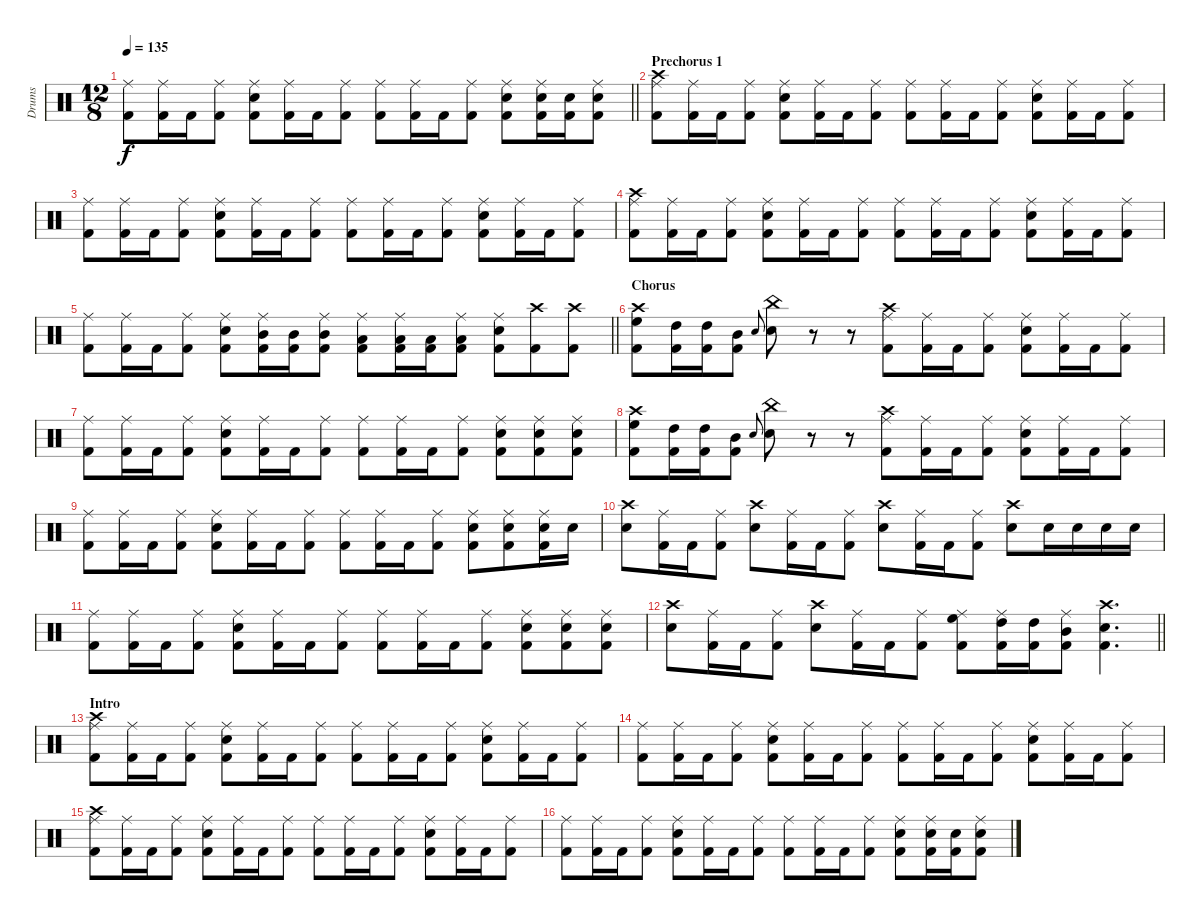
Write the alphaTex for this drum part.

\track ("Drums" "Drums") {instrument percussion}
\staff {score}
\articulation defaults
\ts (12 8)
\tempo 135
\clef neutral
\barLineRight lightlight
\ks c
("Ride (middle)" "Kick (hit) 2").8{dy f} ("Ride (middle)" "Kick (hit) 2").16 "Kick (hit) 2".16 ("Ride (middle)" "Kick (hit) 2").8 ("Ride (middle)" "Snare (hit) 2" "Kick (hit) 2").8 ("Ride (middle)" "Kick (hit) 2").16 "Kick (hit) 2".16 ("Ride (middle)" "Kick (hit) 2").8 ("Ride (middle)" "Kick (hit) 2").8 ("Ride (middle)" "Kick (hit) 2").16 "Kick (hit) 2".16 ("Ride (middle)" "Kick (hit) 2").8 ("Ride (middle)" "Snare (hit) 2" "Kick (hit) 2").8 ("Ride (middle)" "Snare (hit) 2" "Kick (hit) 2").16 ("Snare (hit) 2" "Kick (hit) 2").16 ("Ride (middle)" "Snare (hit) 2" "Kick (hit) 2").8 |
\section ("" "Prechorus 1")
("Crash high (hit)" "Ride (middle)" "Kick (hit) 2").8 ("Ride (middle)" "Kick (hit) 2").16 "Kick (hit) 2".16 ("Ride (middle)" "Kick (hit) 2").8 ("Ride (middle)" "Snare (hit) 2" "Kick (hit) 2").8 ("Ride (middle)" "Kick (hit) 2").16 "Kick (hit) 2".16 ("Ride (middle)" "Kick (hit) 2").8 ("Ride (middle)" "Kick (hit) 2").8 ("Ride (middle)" "Kick (hit) 2").16 "Kick (hit) 2".16 ("Ride (middle)" "Kick (hit) 2").8 ("Ride (middle)" "Snare (hit) 2" "Kick (hit) 2").8 ("Ride (middle)" "Kick (hit) 2").16 "Kick (hit) 2".16 ("Ride (middle)" "Kick (hit) 2").8 |
("Ride (middle)" "Kick (hit) 2").8 ("Ride (middle)" "Kick (hit) 2").16 "Kick (hit) 2".16 ("Ride (middle)" "Kick (hit) 2").8 ("Ride (middle)" "Snare (hit) 2" "Kick (hit) 2").8 ("Ride (middle)" "Kick (hit) 2").16 "Kick (hit) 2".16 ("Ride (middle)" "Kick (hit) 2").8 ("Ride (middle)" "Kick (hit) 2").8 ("Ride (middle)" "Kick (hit) 2").16 "Kick (hit) 2".16 ("Ride (middle)" "Kick (hit) 2").8 ("Ride (middle)" "Snare (hit) 2" "Kick (hit) 2").8 ("Ride (middle)" "Kick (hit) 2").16 "Kick (hit) 2".16 ("Ride (middle)" "Kick (hit) 2").8 |
("Crash high (hit)" "Ride (middle)" "Kick (hit) 2").8 ("Ride (middle)" "Kick (hit) 2").16 "Kick (hit) 2".16 ("Ride (middle)" "Kick (hit) 2").8 ("Ride (middle)" "Snare (hit) 2" "Kick (hit) 2").8 ("Ride (middle)" "Kick (hit) 2").16 "Kick (hit) 2".16 ("Ride (middle)" "Kick (hit) 2").8 ("Ride (middle)" "Kick (hit) 2").8 ("Ride (middle)" "Kick (hit) 2").16 "Kick (hit) 2".16 ("Ride (middle)" "Kick (hit) 2").8 ("Ride (middle)" "Snare (hit) 2" "Kick (hit) 2").8 ("Ride (middle)" "Kick (hit) 2").16 "Kick (hit) 2".16 ("Ride (middle)" "Kick (hit) 2").8 |
\barLineRight lightlight
("Ride (middle)" "Kick (hit) 2").8 ("Ride (middle)" "Kick (hit) 2").16 "Kick (hit) 2".16 ("Ride (middle)" "Kick (hit) 2").8 ("Ride (middle)" "Snare (hit) 2" "Kick (hit) 2").8 ("Ride (middle)" "Mid Tom (hit)" "Kick (hit) 2").16 ("Mid Tom (hit)" "Kick (hit) 2").16 ("Ride (middle)" "Mid Tom (hit)" "Kick (hit) 2").8 ("Ride (middle)" "Low Tom (hit)" "Kick (hit) 2").8 ("Ride (middle)" "Low Tom (hit)" "Kick (hit) 2").16 ("Low Tom (hit)" "Kick (hit) 2").16 ("Ride (middle)" "Low Tom (hit)" "Kick (hit) 2").8 ("Ride (middle)" "Snare (hit) 2" "Kick (hit) 2").8 ("Crash high (hit)" "Kick (hit) 2").8 ("Crash high (hit)" "Kick (hit) 2").8 |
\section ("" "Chorus")
("Crash high (hit)" "High Floor Tom (hit)" "Kick (hit) 2").8 ("High Tom (hit)" "Kick (hit) 2").16 ("High Tom (hit)" "Kick (hit) 2").16 ("Mid Tom (hit)" "Kick (hit) 2").8 "Snare (hit) 2".8{gr onbeat} ("China (hit)" "Snare (hit) 2").8 r.8 r.8 ("Crash high (hit)" "Ride (middle)" "Kick (hit) 2").8 ("Ride (middle)" "Kick (hit) 2").16 "Kick (hit) 2".16 ("Ride (middle)" "Kick (hit) 2").8 ("Ride (middle)" "Snare (hit) 2" "Kick (hit) 2").8 ("Ride (middle)" "Kick (hit) 2").16 "Kick (hit) 2".16 ("Ride (middle)" "Kick (hit) 2").8 |
("Ride (middle)" "Kick (hit) 2").8 ("Ride (middle)" "Kick (hit) 2").16 "Kick (hit) 2".16 ("Ride (middle)" "Kick (hit) 2").8 ("Ride (middle)" "Snare (hit) 2" "Kick (hit) 2").8 ("Ride (middle)" "Kick (hit) 2").16 "Kick (hit) 2".16 ("Ride (middle)" "Kick (hit) 2").8 ("Ride (middle)" "Kick (hit) 2").8 ("Ride (middle)" "Kick (hit) 2").16 "Kick (hit) 2".16 ("Ride (middle)" "Kick (hit) 2").8 ("Ride (middle)" "Snare (hit) 2" "Kick (hit) 2").8 ("Ride (middle)" "Snare (hit) 2" "Kick (hit) 2").8 ("Ride (middle)" "Snare (hit) 2" "Kick (hit) 2").8 |
("Crash high (hit)" "High Floor Tom (hit)" "Kick (hit) 2").8 ("High Tom (hit)" "Kick (hit) 2").16 ("High Tom (hit)" "Kick (hit) 2").16 ("Mid Tom (hit)" "Kick (hit) 2").8 "Snare (hit) 2".8{gr onbeat} ("China (hit)" "Snare (hit) 2").8 r.8 r.8 ("Crash high (hit)" "Ride (middle)" "Kick (hit) 2").8 ("Ride (middle)" "Kick (hit) 2").16 "Kick (hit) 2".16 ("Ride (middle)" "Kick (hit) 2").8 ("Ride (middle)" "Snare (hit) 2" "Kick (hit) 2").8 ("Ride (middle)" "Kick (hit) 2").16 "Kick (hit) 2".16 ("Ride (middle)" "Kick (hit) 2").8 |
("Ride (middle)" "Kick (hit) 2").8 ("Ride (middle)" "Kick (hit) 2").16 "Kick (hit) 2".16 ("Ride (middle)" "Kick (hit) 2").8 ("Ride (middle)" "Snare (hit) 2" "Kick (hit) 2").8 ("Ride (middle)" "Kick (hit) 2").16 "Kick (hit) 2".16 ("Ride (middle)" "Kick (hit) 2").8 ("Ride (middle)" "Kick (hit) 2").8 ("Ride (middle)" "Kick (hit) 2").16 "Kick (hit) 2".16 ("Ride (middle)" "Kick (hit) 2").8 ("Ride (middle)" "Snare (hit) 2" "Kick (hit) 2").8 ("Ride (middle)" "Snare (hit) 2" "Kick (hit) 2").8 ("Ride (middle)" "Snare (hit) 2" "Kick (hit) 2").16 "Snare (hit) 2".16 |
("Crash high (hit)" "Snare (hit) 2").8 ("Ride (middle)" "Kick (hit) 2").16 "Kick (hit) 2".16 ("Ride (middle)" "Kick (hit) 2").8 ("Crash high (hit)" "Snare (hit) 2").8 ("Ride (middle)" "Kick (hit) 2").16 "Kick (hit) 2".16 ("Ride (middle)" "Kick (hit) 2").8 ("Crash high (hit)" "Snare (hit) 2").8 ("Ride (middle)" "Kick (hit) 2").16 "Kick (hit) 2".16 ("Ride (middle)" "Kick (hit) 2").8 ("Crash high (hit)" "Snare (hit) 2").8 "Snare (hit) 2".16 "Snare (hit) 2".16 "Snare (hit) 2".16 "Snare (hit) 2".16 |
("Ride (middle)" "Kick (hit) 2").8 ("Ride (middle)" "Kick (hit) 2").16 "Kick (hit) 2".16 ("Ride (middle)" "Kick (hit) 2").8 ("Ride (middle)" "Snare (hit) 2" "Kick (hit) 2").8 ("Ride (middle)" "Kick (hit) 2").16 "Kick (hit) 2".16 ("Ride (middle)" "Kick (hit) 2").8 ("Ride (middle)" "Kick (hit) 2").8 ("Ride (middle)" "Kick (hit) 2").16 "Kick (hit) 2".16 ("Ride (middle)" "Kick (hit) 2").8 ("Ride (middle)" "Snare (hit) 2" "Kick (hit) 2").8 ("Ride (middle)" "Snare (hit) 2" "Kick (hit) 2").8 ("Ride (middle)" "Snare (hit) 2" "Kick (hit) 2").8 |
\barLineRight lightlight
("Crash high (hit)" "Snare (hit) 2").8 ("Ride (middle)" "Kick (hit) 2").16 "Kick (hit) 2".16 ("Ride (middle)" "Kick (hit) 2").8 ("Crash high (hit)" "Snare (hit) 2").8 ("Ride (middle)" "Kick (hit) 2").16 "Kick (hit) 2".16 ("Ride (middle)" "Kick (hit) 2").8 ("Ride (middle)" "High Floor Tom (hit)" "Kick (hit) 2").8 ("Ride (middle)" "High Tom (hit)" "Kick (hit) 2").16 ("High Tom (hit)" "Kick (hit) 2").16 ("Ride (middle)" "Mid Tom (hit)" "Kick (hit) 2").8 ("Crash high (hit)" "Snare (hit) 2" "Kick (hit) 2").4{d} |
\section ("" "Intro")
("Crash high (hit)" "Ride (middle)" "Kick (hit) 2").8 ("Ride (middle)" "Kick (hit) 2").16 "Kick (hit) 2".16 ("Ride (middle)" "Kick (hit) 2").8 ("Ride (middle)" "Snare (hit) 2" "Kick (hit) 2").8 ("Ride (middle)" "Kick (hit) 2").16 "Kick (hit) 2".16 ("Ride (middle)" "Kick (hit) 2").8 ("Ride (middle)" "Kick (hit) 2").8 ("Ride (middle)" "Kick (hit) 2").16 "Kick (hit) 2".16 ("Ride (middle)" "Kick (hit) 2").8 ("Ride (middle)" "Snare (hit) 2" "Kick (hit) 2").8 ("Ride (middle)" "Kick (hit) 2").16 "Kick (hit) 2".16 ("Ride (middle)" "Kick (hit) 2").8 |
("Ride (middle)" "Kick (hit) 2").8 ("Ride (middle)" "Kick (hit) 2").16 "Kick (hit) 2".16 ("Ride (middle)" "Kick (hit) 2").8 ("Ride (middle)" "Snare (hit) 2" "Kick (hit) 2").8 ("Ride (middle)" "Kick (hit) 2").16 "Kick (hit) 2".16 ("Ride (middle)" "Kick (hit) 2").8 ("Ride (middle)" "Kick (hit) 2").8 ("Ride (middle)" "Kick (hit) 2").16 "Kick (hit) 2".16 ("Ride (middle)" "Kick (hit) 2").8 ("Ride (middle)" "Snare (hit) 2" "Kick (hit) 2").8 ("Ride (middle)" "Kick (hit) 2").16 "Kick (hit) 2".16 ("Ride (middle)" "Kick (hit) 2").8 |
("Crash high (hit)" "Ride (middle)" "Kick (hit) 2").8 ("Ride (middle)" "Kick (hit) 2").16 "Kick (hit) 2".16 ("Ride (middle)" "Kick (hit) 2").8 ("Ride (middle)" "Snare (hit) 2" "Kick (hit) 2").8 ("Ride (middle)" "Kick (hit) 2").16 "Kick (hit) 2".16 ("Ride (middle)" "Kick (hit) 2").8 ("Ride (middle)" "Kick (hit) 2").8 ("Ride (middle)" "Kick (hit) 2").16 "Kick (hit) 2".16 ("Ride (middle)" "Kick (hit) 2").8 ("Ride (middle)" "Snare (hit) 2" "Kick (hit) 2").8 ("Ride (middle)" "Kick (hit) 2").16 "Kick (hit) 2".16 ("Ride (middle)" "Kick (hit) 2").8 |
("Ride (middle)" "Kick (hit) 2").8 ("Ride (middle)" "Kick (hit) 2").16 "Kick (hit) 2".16 ("Ride (middle)" "Kick (hit) 2").8 ("Ride (middle)" "Snare (hit) 2" "Kick (hit) 2").8 ("Ride (middle)" "Kick (hit) 2").16 "Kick (hit) 2".16 ("Ride (middle)" "Kick (hit) 2").8 ("Ride (middle)" "Kick (hit) 2").8 ("Ride (middle)" "Kick (hit) 2").16 "Kick (hit) 2".16 ("Ride (middle)" "Kick (hit) 2").8 ("Ride (middle)" "Snare (hit) 2" "Kick (hit) 2").8 ("Ride (middle)" "Snare (hit) 2" "Kick (hit) 2").16 ("Snare (hit) 2" "Kick (hit) 2").16 ("Ride (middle)" "Snare (hit) 2" "Kick (hit) 2").8
